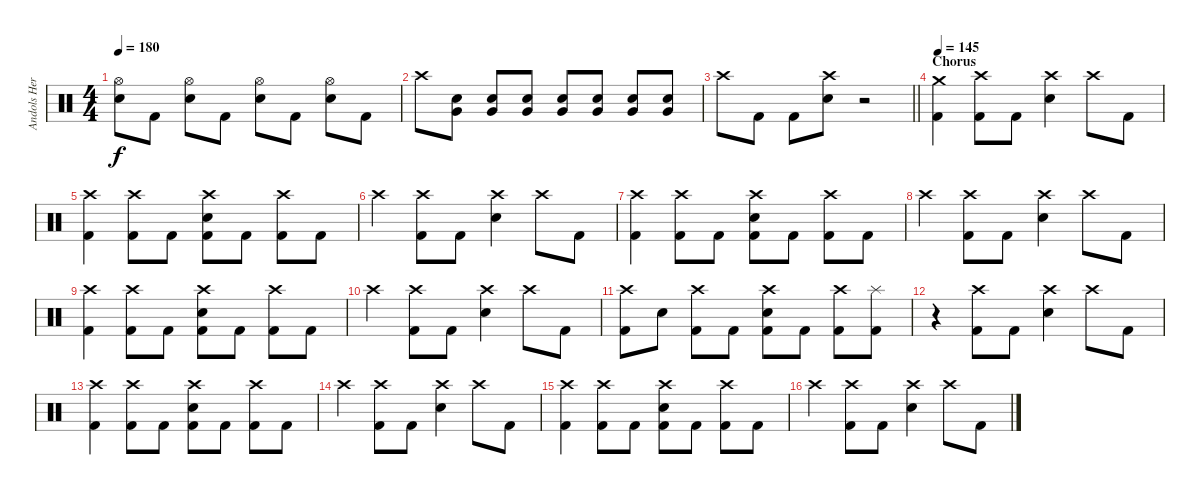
\track ("Andols Herrick" "Andols Her") {instrument percussion}
\staff {score}
\articulation defaults
\ts (4 4)
\tempo 180
\clef neutral
\ks c
("Hi-Hat (open)" "Electric Snare (hit)").8{dy f} "Kick (hit) 2".8 ("Hi-Hat (open)" "Electric Snare (hit)").8 "Kick (hit) 2".8 ("Hi-Hat (open)" "Electric Snare (hit)").8 "Kick (hit) 2".8 ("Hi-Hat (open)" "Electric Snare (hit)").8 "Kick (hit) 2".8 |
"Crash high (hit)".8 ("Electric Snare (hit)" "Very Low Tom (hit)").8 ("Electric Snare (hit)" "Very Low Tom (hit)").8 ("Electric Snare (hit)" "Very Low Tom (hit)").8 ("Electric Snare (hit)" "Very Low Tom (hit)").8 ("Electric Snare (hit)" "Very Low Tom (hit)").8 ("Electric Snare (hit)" "Very Low Tom (hit)").8 ("Electric Snare (hit)" "Very Low Tom (hit)").8 |
\barLineRight lightlight "Crash high (hit)".8 "Kick (hit) 2".8 "Kick (hit) 2".8
("Crash high (hit)" "Electric Snare (hit)").8 r.2 |
\section ("" "Chorus")
\tempo 145
("Crash medium (hit)" "Kick (hit) 2").4 ("Crash high (hit)" "Kick (hit) 2").8 "Kick (hit) 2".8 ("Crash high (hit)" "Electric Snare (hit)").4 "Crash high (hit)".8 "Kick (hit) 2".8 |
("Crash high (hit)" "Kick (hit) 2").4 ("Crash high (hit)" "Kick (hit) 2").8 "Kick (hit) 2".8 ("Crash high (hit)" "Electric Snare (hit)" "Kick (hit) 2").8 "Kick (hit) 2".8 ("Crash high (hit)" "Kick (hit) 2").8 "Kick (hit) 2".8 |
"Crash high (hit)".4 ("Crash high (hit)" "Kick (hit) 2").8 "Kick (hit) 2".8 ("Crash high (hit)" "Electric Snare (hit)").4 "Crash high (hit)".8 "Kick (hit) 2".8 |
("Crash high (hit)" "Kick (hit) 2").4 ("Crash high (hit)" "Kick (hit) 2").8 "Kick (hit) 2".8 ("Crash high (hit)" "Electric Snare (hit)" "Kick (hit) 2").8 "Kick (hit) 2".8 ("Crash high (hit)" "Kick (hit) 2").8 "Kick (hit) 2".8 |
"Crash high (hit)".4 ("Crash high (hit)" "Kick (hit) 2").8 "Kick (hit) 2".8 ("Crash high (hit)" "Electric Snare (hit)").4 "Crash high (hit)".8 "Kick (hit) 2".8 |
("Crash high (hit)" "Kick (hit) 2").4 ("Crash high (hit)" "Kick (hit) 2").8 "Kick (hit) 2".8 ("Crash high (hit)" "Electric Snare (hit)" "Kick (hit) 2").8 "Kick (hit) 2".8 ("Crash high (hit)" "Kick (hit) 2").8 "Kick (hit) 2".8 |
"Crash high (hit)".4 ("Crash high (hit)" "Kick (hit) 2").8 "Kick (hit) 2".8 ("Crash high (hit)" "Electric Snare (hit)").4 "Crash high (hit)".8 "Kick (hit) 2".8 |
("Crash high (hit)" "Kick (hit) 2").8 "Electric Snare (hit)".8 ("Crash high (hit)" "Kick (hit) 2").8 "Kick (hit) 2".8 ("Crash high (hit)" "Electric Snare (hit)" "Kick (hit) 2").8 "Kick (hit) 2".8 ("Crash high (hit)" "Kick (hit) 2").8 ("Splash (hit)" "Kick (hit) 2").8 |
r.4 ("Crash high (hit)" "Kick (hit) 2").8 "Kick (hit) 2".8 ("Crash high (hit)" "Electric Snare (hit)").4 "Crash high (hit)".8 "Kick (hit) 2".8 |
("Crash high (hit)" "Kick (hit) 2").4 ("Crash high (hit)" "Kick (hit) 2").8 "Kick (hit) 2".8 ("Crash high (hit)" "Electric Snare (hit)" "Kick (hit) 2").8 "Kick (hit) 2".8 ("Crash high (hit)" "Kick (hit) 2").8 "Kick (hit) 2".8 |
"Crash high (hit)".4 ("Crash high (hit)" "Kick (hit) 2").8 "Kick (hit) 2".8 ("Crash high (hit)" "Electric Snare (hit)").4 "Crash high (hit)".8 "Kick (hit) 2".8 |
("Crash high (hit)" "Kick (hit) 2").4 ("Crash high (hit)" "Kick (hit) 2").8 "Kick (hit) 2".8 ("Crash high (hit)" "Electric Snare (hit)" "Kick (hit) 2").8 "Kick (hit) 2".8 ("Crash high (hit)" "Kick (hit) 2").8 "Kick (hit) 2".8 |
"Crash high (hit)".4 ("Crash high (hit)" "Kick (hit) 2").8 "Kick (hit) 2".8 ("Crash high (hit)" "Electric Snare (hit)").4 "Crash high (hit)".8 "Kick (hit) 2".8
